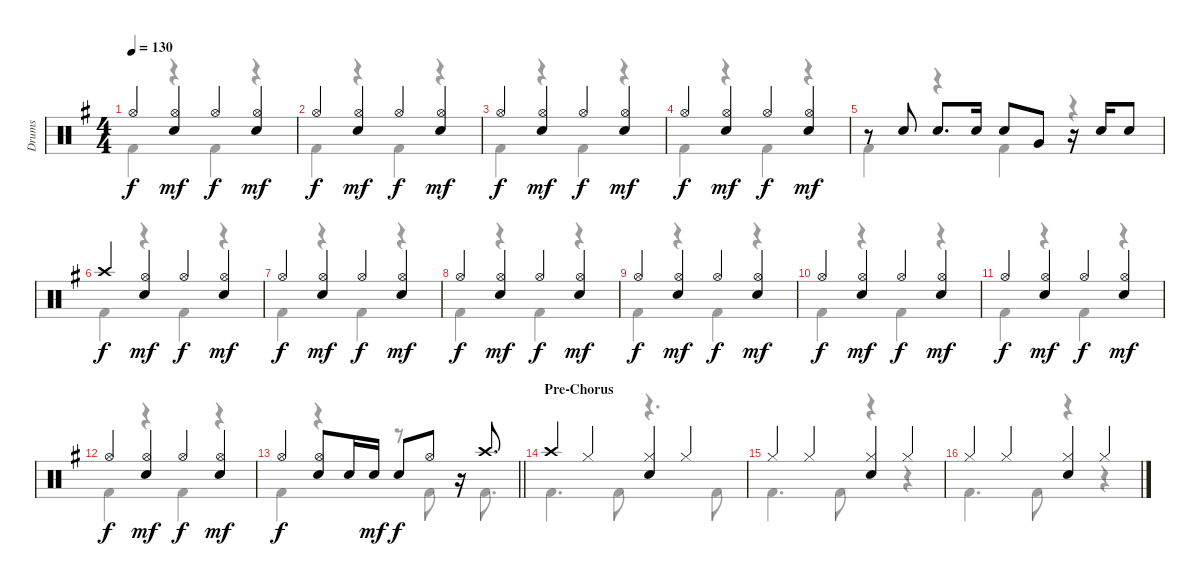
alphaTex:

\track ("Drums" "Drums") {instrument percussion}
\staff {score}
\articulation defaults
\voice
\ts (4 4)
\tempo 130
\clef neutral
\ks g "Hi-Hat (open)".4{dy f}
("Hi-Hat (open)" "Electric Snare (hit)").4{dy mf} "Hi-Hat (open)".4{dy f} ("Hi-Hat (open)" "Electric Snare (hit)").4{dy mf} |
"Hi-Hat (open)".4{dy f} ("Hi-Hat (open)" "Electric Snare (hit)").4{dy mf} "Hi-Hat (open)".4{dy f} ("Hi-Hat (open)" "Electric Snare (hit)").4{dy mf} |
"Hi-Hat (open)".4{dy f} ("Hi-Hat (open)" "Electric Snare (hit)").4{dy mf} "Hi-Hat (open)".4{dy f} ("Hi-Hat (open)" "Electric Snare (hit)").4{dy mf} |
"Hi-Hat (open)".4{dy f} ("Hi-Hat (open)" "Electric Snare (hit)").4{dy mf} "Hi-Hat (open)".4{dy f} ("Hi-Hat (open)" "Electric Snare (hit)").4{dy mf} |
r.8 "Electric Snare (hit)".8 "Electric Snare (hit)".8{d} "Electric Snare (hit)".16 "Electric Snare (hit)".8 "Very Low Tom (hit)".8 r.16 "Electric Snare (hit)".16 "Electric Snare (hit)".8 |
"Crash high (hit)".4{dy f} ("Hi-Hat (open)" "Electric Snare (hit)").4{dy mf} "Hi-Hat (open)".4{dy f} ("Hi-Hat (open)" "Electric Snare (hit)").4{dy mf} |
"Hi-Hat (open)".4{dy f} ("Hi-Hat (open)" "Electric Snare (hit)").4{dy mf} "Hi-Hat (open)".4{dy f} ("Hi-Hat (open)" "Electric Snare (hit)").4{dy mf} |
"Hi-Hat (open)".4{dy f} ("Hi-Hat (open)" "Electric Snare (hit)").4{dy mf} "Hi-Hat (open)".4{dy f} ("Hi-Hat (open)" "Electric Snare (hit)").4{dy mf} |
"Hi-Hat (open)".4{dy f} ("Hi-Hat (open)" "Electric Snare (hit)").4{dy mf} "Hi-Hat (open)".4{dy f} ("Hi-Hat (open)" "Electric Snare (hit)").4{dy mf} |
"Hi-Hat (open)".4{dy f} ("Hi-Hat (open)" "Electric Snare (hit)").4{dy mf} "Hi-Hat (open)".4{dy f} ("Hi-Hat (open)" "Electric Snare (hit)").4{dy mf} |
"Hi-Hat (open)".4{dy f} ("Hi-Hat (open)" "Electric Snare (hit)").4{dy mf} "Hi-Hat (open)".4{dy f} ("Hi-Hat (open)" "Electric Snare (hit)").4{dy mf} |
"Hi-Hat (open)".4{dy f} ("Hi-Hat (open)" "Electric Snare (hit)").4{dy mf} "Hi-Hat (open)".4{dy f} ("Hi-Hat (open)" "Electric Snare (hit)").4{dy mf} |
\barLineRight lightlight "Hi-Hat (open)".4{dy f}
("Hi-Hat (open)" "Electric Snare (hit)").8 "Electric Snare (hit)".16 "Electric Snare (hit)".16{dy mf} "Electric Snare (hit)".8{dy f} "Hi-Hat (open)".8 r.16 "Crash high (hit)".8{d} |
\section ("" "Pre-Chorus")
"Crash high (hit)".4 "Hi-Hat (closed)".4 ("Hi-Hat (closed)" "Electric Snare (hit)").4 "Hi-Hat (closed)".4 |
"Hi-Hat (closed)".4 "Hi-Hat (closed)".4 ("Hi-Hat (closed)" "Electric Snare (hit)").4 "Hi-Hat (closed)".4 |
"Hi-Hat (closed)".4 "Hi-Hat (closed)".4 ("Hi-Hat (closed)" "Electric Snare (hit)").4 "Hi-Hat (closed)".4
\voice
\clef neutral
\ottava regular
\simile none
\ks g "Kick (hit) 2".4{dy f}
r.4 "Kick (hit) 2".4 r.4 |
"Kick (hit) 2".4 r.4 "Kick (hit) 2".4 r.4 |
"Kick (hit) 2".4 r.4 "Kick (hit) 2".4 r.4 |
"Kick (hit) 2".4 r.4 "Kick (hit) 2".4 r.4 |
"Kick (hit) 2".4 r.4 "Kick (hit) 2".4 r.4 |
"Kick (hit) 2".4 r.4 "Kick (hit) 2".4 r.4 |
"Kick (hit) 2".4 r.4 "Kick (hit) 2".4 r.4 |
"Kick (hit) 2".4 r.4 "Kick (hit) 2".4 r.4 |
"Kick (hit) 2".4 r.4 "Kick (hit) 2".4 r.4 |
"Kick (hit) 2".4 r.4 "Kick (hit) 2".4 r.4 |
"Kick (hit) 2".4 r.4 "Kick (hit) 2".4 r.4 |
"Kick (hit) 2".4 r.4 "Kick (hit) 2".4 r.4 |
\barLineRight lightlight "Kick (hit) 2".4
r.4 r.8 "Kick (hit) 2".8 r.16 "Kick (hit) 2".8{d} |
"Kick (hit) 2".4{d} "Kick (hit) 2".8 r.4{d} "Kick (hit) 2".8 |
"Kick (hit) 2".4{d} "Kick (hit) 2".8 r.4 r.4 |
"Kick (hit) 2".4{d} "Kick (hit) 2".8 r.4 r.4
